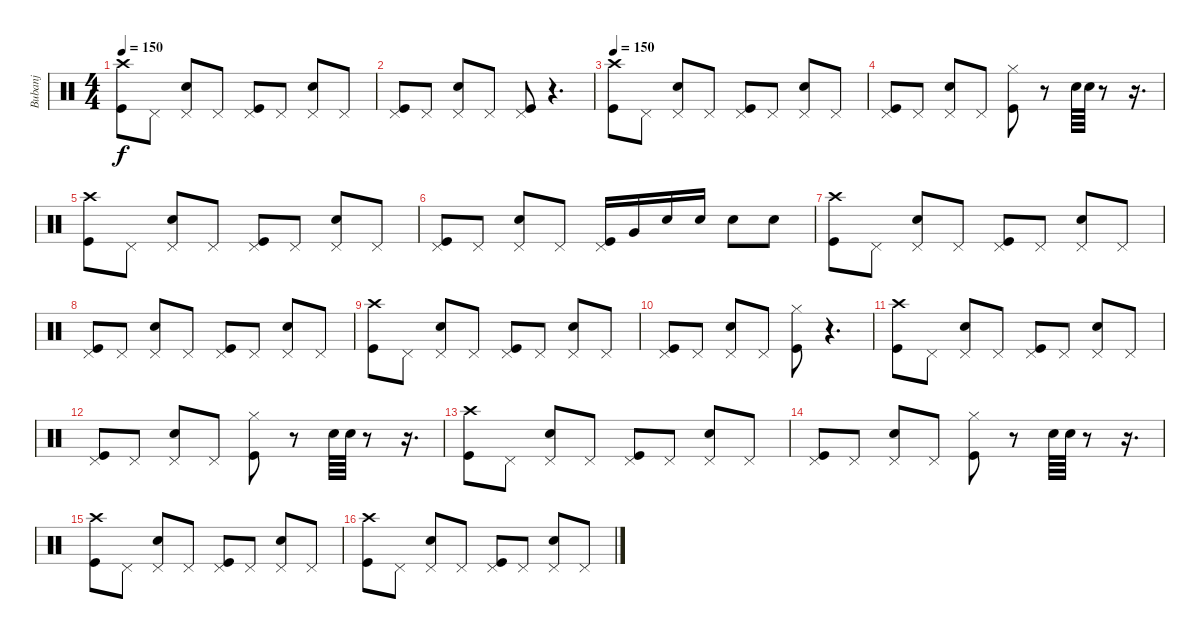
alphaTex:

\track ("Bubanj" "Bubanj") {instrument percussion}
\staff {score}
\articulation defaults
\ts (4 4)
\tempo 150
\clef neutral
\ks c
("Crash high (hit)" "Kick (hit)").8{dy f} "Pedal Hi-Hat (hit)".8 ("Pedal Hi-Hat (hit)" "Electric Snare (hit)").8 "Pedal Hi-Hat (hit)".8 ("Pedal Hi-Hat (hit)" "Kick (hit)").8 "Pedal Hi-Hat (hit)".8 ("Pedal Hi-Hat (hit)" "Electric Snare (hit)").8 "Pedal Hi-Hat (hit)".8 |
("Pedal Hi-Hat (hit)" "Kick (hit)").8 "Pedal Hi-Hat (hit)".8 ("Pedal Hi-Hat (hit)" "Electric Snare (hit)").8 "Pedal Hi-Hat (hit)".8 ("Pedal Hi-Hat (hit)" "Kick (hit)").8 r.4{d} |
\tempo 150
("Crash high (hit)" "Kick (hit)").8 "Pedal Hi-Hat (hit)".8 ("Pedal Hi-Hat (hit)" "Electric Snare (hit)").8 "Pedal Hi-Hat (hit)".8 ("Pedal Hi-Hat (hit)" "Kick (hit)").8 "Pedal Hi-Hat (hit)".8 ("Pedal Hi-Hat (hit)" "Electric Snare (hit)").8 "Pedal Hi-Hat (hit)".8 |
("Pedal Hi-Hat (hit)" "Kick (hit)").8 "Pedal Hi-Hat (hit)".8 ("Pedal Hi-Hat (hit)" "Electric Snare (hit)").8 "Pedal Hi-Hat (hit)".8 ("Hi-Hat (closed)" "Kick (hit)").8 r.8 "Electric Snare (hit)".64 "Electric Snare (hit)".64 r.8 r.16{d} |
("Crash high (hit)" "Kick (hit)").8 "Pedal Hi-Hat (hit)".8 ("Pedal Hi-Hat (hit)" "Electric Snare (hit)").8 "Pedal Hi-Hat (hit)".8 ("Pedal Hi-Hat (hit)" "Kick (hit)").8 "Pedal Hi-Hat (hit)".8 ("Pedal Hi-Hat (hit)" "Electric Snare (hit)").8 "Pedal Hi-Hat (hit)".8 |
("Pedal Hi-Hat (hit)" "Kick (hit)").8 "Pedal Hi-Hat (hit)".8 ("Pedal Hi-Hat (hit)" "Electric Snare (hit)").8 "Pedal Hi-Hat (hit)".8 ("Pedal Hi-Hat (hit)" "Kick (hit)").16 "Very Low Tom (hit)".16 "Electric Snare (hit)".16 "Electric Snare (hit)".16 "Electric Snare (hit)".8 "Electric Snare (hit)".8 |
("Crash high (hit)" "Kick (hit)").8 "Pedal Hi-Hat (hit)".8 ("Pedal Hi-Hat (hit)" "Electric Snare (hit)").8 "Pedal Hi-Hat (hit)".8 ("Pedal Hi-Hat (hit)" "Kick (hit)").8 "Pedal Hi-Hat (hit)".8 ("Pedal Hi-Hat (hit)" "Electric Snare (hit)").8 "Pedal Hi-Hat (hit)".8 |
("Pedal Hi-Hat (hit)" "Kick (hit)").8 "Pedal Hi-Hat (hit)".8 ("Pedal Hi-Hat (hit)" "Electric Snare (hit)").8 "Pedal Hi-Hat (hit)".8 ("Pedal Hi-Hat (hit)" "Kick (hit)").8 "Pedal Hi-Hat (hit)".8 ("Pedal Hi-Hat (hit)" "Electric Snare (hit)").8 "Pedal Hi-Hat (hit)".8 |
("Crash high (hit)" "Kick (hit)").8 "Pedal Hi-Hat (hit)".8 ("Pedal Hi-Hat (hit)" "Electric Snare (hit)").8 "Pedal Hi-Hat (hit)".8 ("Pedal Hi-Hat (hit)" "Kick (hit)").8 "Pedal Hi-Hat (hit)".8 ("Pedal Hi-Hat (hit)" "Electric Snare (hit)").8 "Pedal Hi-Hat (hit)".8 |
("Pedal Hi-Hat (hit)" "Kick (hit)").8 "Pedal Hi-Hat (hit)".8 ("Pedal Hi-Hat (hit)" "Electric Snare (hit)").8 "Pedal Hi-Hat (hit)".8 ("Hi-Hat (closed)" "Kick (hit)").8 r.4{d} |
("Crash high (hit)" "Kick (hit)").8 "Pedal Hi-Hat (hit)".8 ("Pedal Hi-Hat (hit)" "Electric Snare (hit)").8 "Pedal Hi-Hat (hit)".8 ("Pedal Hi-Hat (hit)" "Kick (hit)").8 "Pedal Hi-Hat (hit)".8 ("Pedal Hi-Hat (hit)" "Electric Snare (hit)").8 "Pedal Hi-Hat (hit)".8 |
("Pedal Hi-Hat (hit)" "Kick (hit)").8 "Pedal Hi-Hat (hit)".8 ("Pedal Hi-Hat (hit)" "Electric Snare (hit)").8 "Pedal Hi-Hat (hit)".8 ("Hi-Hat (closed)" "Kick (hit)").8 r.8 "Electric Snare (hit)".64 "Electric Snare (hit)".64 r.8 r.16{d} |
("Crash high (hit)" "Kick (hit)").8 "Pedal Hi-Hat (hit)".8 ("Pedal Hi-Hat (hit)" "Electric Snare (hit)").8 "Pedal Hi-Hat (hit)".8 ("Pedal Hi-Hat (hit)" "Kick (hit)").8 "Pedal Hi-Hat (hit)".8 ("Pedal Hi-Hat (hit)" "Electric Snare (hit)").8 "Pedal Hi-Hat (hit)".8 |
("Pedal Hi-Hat (hit)" "Kick (hit)").8 "Pedal Hi-Hat (hit)".8 ("Pedal Hi-Hat (hit)" "Electric Snare (hit)").8 "Pedal Hi-Hat (hit)".8 ("Hi-Hat (closed)" "Kick (hit)").8 r.8 "Electric Snare (hit)".64 "Electric Snare (hit)".64 r.8 r.16{d} |
("Crash high (hit)" "Kick (hit)").8 "Pedal Hi-Hat (hit)".8 ("Pedal Hi-Hat (hit)" "Electric Snare (hit)").8 "Pedal Hi-Hat (hit)".8 ("Pedal Hi-Hat (hit)" "Kick (hit)").8 "Pedal Hi-Hat (hit)".8 ("Pedal Hi-Hat (hit)" "Electric Snare (hit)").8 "Pedal Hi-Hat (hit)".8 |
("Crash high (hit)" "Kick (hit)").8 "Pedal Hi-Hat (hit)".8 ("Pedal Hi-Hat (hit)" "Electric Snare (hit)").8 "Pedal Hi-Hat (hit)".8 ("Pedal Hi-Hat (hit)" "Kick (hit)").8 "Pedal Hi-Hat (hit)".8 ("Pedal Hi-Hat (hit)" "Electric Snare (hit)").8 "Pedal Hi-Hat (hit)".8
